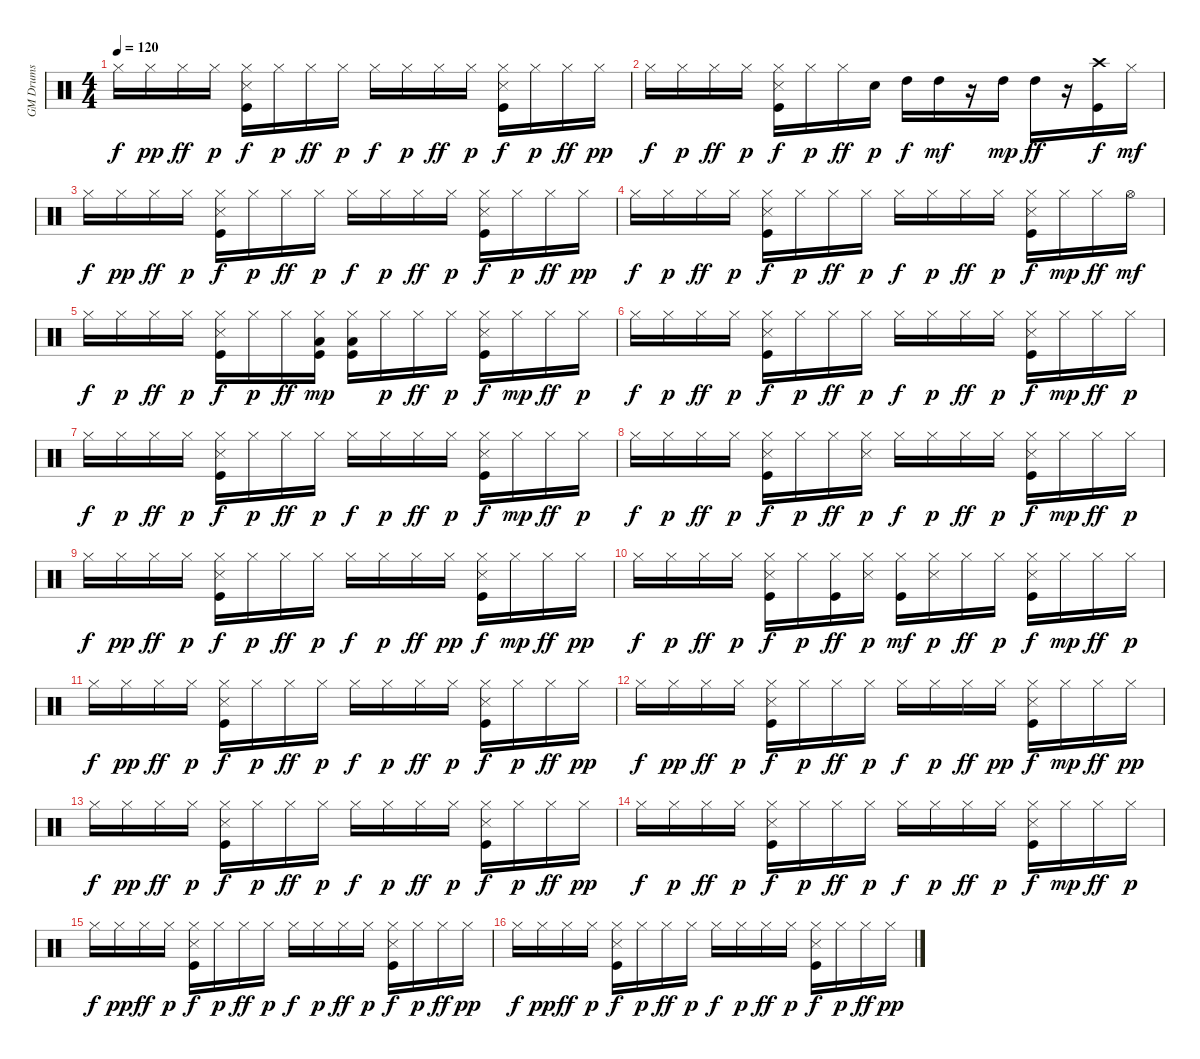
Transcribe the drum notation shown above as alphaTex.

\track ("GM Drums" "GM Drums") {instrument percussion}
\staff {score}
\articulation defaults
\ts (4 4)
\tempo 120
\clef neutral
\ks c "Hi-Hat (closed)".16{dy f} "Hi-Hat (closed)".16{dy pp} "Hi-Hat (closed)".16{dy ff} "Hi-Hat (closed)".16{dy p}
("Kick (hit)" "Snare (side stick) 3" "Hi-Hat (closed)").16{dy f} "Hi-Hat (closed)".16{dy p} "Hi-Hat (closed)".16{dy ff} "Hi-Hat (closed)".16{dy p} "Hi-Hat (closed)".16{dy f} "Hi-Hat (closed)".16{dy p} "Hi-Hat (closed)".16{dy ff} "Hi-Hat (closed)".16{dy p} ("Kick (hit)" "Snare (side stick) 3" "Hi-Hat (closed)").16{dy f} "Hi-Hat (closed)".16{dy p} "Hi-Hat (closed)".16{dy ff} "Hi-Hat (closed)".16{dy pp} |
"Hi-Hat (closed)".16{dy f} "Hi-Hat (closed)".16{dy p} "Hi-Hat (closed)".16{dy ff} "Hi-Hat (closed)".16{dy p} ("Kick (hit)" "Snare (side stick) 3" "Hi-Hat (closed)").16{dy f} "Hi-Hat (closed)".16{dy p} "Hi-Hat (closed)".16{dy ff} "Snare (hit) 2".16{dy p} "High Tom (hit)".16{dy f} "High Tom (hit)".16{dy mf} r.16 "High Tom (hit)".16{dy mp} "High Tom (hit)".16{dy ff} r.16 ("Kick (hit)" "Crash high (hit)").16{dy f} "Hi-Hat (closed)".16{dy mf} |
"Hi-Hat (closed)".16{dy f} "Hi-Hat (closed)".16{dy pp} "Hi-Hat (closed)".16{dy ff} "Hi-Hat (closed)".16{dy p} ("Kick (hit)" "Snare (side stick) 3" "Hi-Hat (closed)").16{dy f} "Hi-Hat (closed)".16{dy p} "Hi-Hat (closed)".16{dy ff} "Hi-Hat (closed)".16{dy p} "Hi-Hat (closed)".16{dy f} "Hi-Hat (closed)".16{dy p} "Hi-Hat (closed)".16{dy ff} "Hi-Hat (closed)".16{dy p} ("Kick (hit)" "Snare (side stick) 3" "Hi-Hat (closed)").16{dy f} "Hi-Hat (closed)".16{dy p} "Hi-Hat (closed)".16{dy ff} "Hi-Hat (closed)".16{dy pp} |
"Hi-Hat (closed)".16{dy f} "Hi-Hat (closed)".16{dy p} "Hi-Hat (closed)".16{dy ff} "Hi-Hat (closed)".16{dy p} ("Kick (hit)" "Snare (side stick) 3" "Hi-Hat (closed)").16{dy f} "Hi-Hat (closed)".16{dy p} "Hi-Hat (closed)".16{dy ff} "Hi-Hat (closed)".16{dy p} "Hi-Hat (closed)".16{dy f} "Hi-Hat (closed)".16{dy p} "Hi-Hat (closed)".16{dy ff} "Hi-Hat (closed)".16{dy p} ("Kick (hit)" "Snare (side stick) 3" "Hi-Hat (closed)").16{dy f} "Hi-Hat (closed)".16{dy mp} "Hi-Hat (closed)".16{dy ff} "Hi-Hat (open)".16{dy mf} |
"Hi-Hat (closed)".16{dy f} "Hi-Hat (closed)".16{dy p} "Hi-Hat (closed)".16{dy ff} "Hi-Hat (closed)".16{dy p} ("Kick (hit)" "Snare (side stick) 3" "Hi-Hat (closed)").16{dy f} "Hi-Hat (closed)".16{dy p} "Hi-Hat (closed)".16{dy ff} ("Kick (hit)" "Hi-Hat (closed)" "Low Tom (hit)").16{dy mp} ("Kick (hit)" "Hi-Hat (closed)" "Low Tom (hit)").16 "Hi-Hat (closed)".16{dy p} "Hi-Hat (closed)".16{dy ff} "Hi-Hat (closed)".16{dy p} ("Kick (hit)" "Snare (side stick) 3" "Hi-Hat (closed)").16{dy f} "Hi-Hat (closed)".16{dy mp} "Hi-Hat (closed)".16{dy ff} "Hi-Hat (closed)".16{dy p} |
"Hi-Hat (closed)".16{dy f} "Hi-Hat (closed)".16{dy p} "Hi-Hat (closed)".16{dy ff} "Hi-Hat (closed)".16{dy p} ("Kick (hit)" "Snare (side stick) 3" "Hi-Hat (closed)").16{dy f} "Hi-Hat (closed)".16{dy p} "Hi-Hat (closed)".16{dy ff} "Hi-Hat (closed)".16{dy p} "Hi-Hat (closed)".16{dy f} "Hi-Hat (closed)".16{dy p} "Hi-Hat (closed)".16{dy ff} "Hi-Hat (closed)".16{dy p} ("Kick (hit)" "Snare (side stick) 3" "Hi-Hat (closed)").16{dy f} "Hi-Hat (closed)".16{dy mp} "Hi-Hat (closed)".16{dy ff} "Hi-Hat (closed)".16{dy p} |
"Hi-Hat (closed)".16{dy f} "Hi-Hat (closed)".16{dy p} "Hi-Hat (closed)".16{dy ff} "Hi-Hat (closed)".16{dy p} ("Kick (hit)" "Snare (side stick) 3" "Hi-Hat (closed)").16{dy f} "Hi-Hat (closed)".16{dy p} "Hi-Hat (closed)".16{dy ff} "Hi-Hat (closed)".16{dy p} "Hi-Hat (closed)".16{dy f} "Hi-Hat (closed)".16{dy p} "Hi-Hat (closed)".16{dy ff} "Hi-Hat (closed)".16{dy p} ("Kick (hit)" "Snare (side stick) 3" "Hi-Hat (closed)").16{dy f} "Hi-Hat (closed)".16{dy mp} "Hi-Hat (closed)".16{dy ff} "Hi-Hat (closed)".16{dy p} |
"Hi-Hat (closed)".16{dy f} "Hi-Hat (closed)".16{dy p} "Hi-Hat (closed)".16{dy ff} "Hi-Hat (closed)".16{dy p} ("Kick (hit)" "Snare (side stick) 3" "Hi-Hat (closed)").16{dy f} "Hi-Hat (closed)".16{dy p} "Hi-Hat (closed)".16{dy ff} ("Snare (side stick) 3" "Hi-Hat (closed)").16{dy p} "Hi-Hat (closed)".16{dy f} "Hi-Hat (closed)".16{dy p} "Hi-Hat (closed)".16{dy ff} "Hi-Hat (closed)".16{dy p} ("Kick (hit)" "Snare (side stick) 3" "Hi-Hat (closed)").16{dy f} "Hi-Hat (closed)".16{dy mp} "Hi-Hat (closed)".16{dy ff} "Hi-Hat (closed)".16{dy p} |
"Hi-Hat (closed)".16{dy f} "Hi-Hat (closed)".16{dy pp} "Hi-Hat (closed)".16{dy ff} "Hi-Hat (closed)".16{dy p} ("Kick (hit)" "Snare (side stick) 3" "Hi-Hat (closed)").16{dy f} "Hi-Hat (closed)".16{dy p} "Hi-Hat (closed)".16{dy ff} "Hi-Hat (closed)".16{dy p} "Hi-Hat (closed)".16{dy f} "Hi-Hat (closed)".16{dy p} "Hi-Hat (closed)".16{dy ff} "Hi-Hat (closed)".16{dy pp} ("Kick (hit)" "Snare (side stick) 3" "Hi-Hat (closed)").16{dy f} "Hi-Hat (closed)".16{dy mp} "Hi-Hat (closed)".16{dy ff} "Hi-Hat (closed)".16{dy pp} |
"Hi-Hat (closed)".16{dy f} "Hi-Hat (closed)".16{dy p} "Hi-Hat (closed)".16{dy ff} "Hi-Hat (closed)".16{dy p} ("Kick (hit)" "Snare (side stick) 3" "Hi-Hat (closed)").16{dy f} "Hi-Hat (closed)".16{dy p} ("Kick (hit)" "Hi-Hat (closed)").16{dy ff} ("Snare (side stick) 3" "Hi-Hat (closed)").16{dy p} ("Kick (hit)" "Hi-Hat (closed)").16{dy mf} ("Snare (side stick) 3" "Hi-Hat (closed)").16{dy p} "Hi-Hat (closed)".16{dy ff} "Hi-Hat (closed)".16{dy p} ("Kick (hit)" "Snare (side stick) 3" "Hi-Hat (closed)").16{dy f} "Hi-Hat (closed)".16{dy mp} "Hi-Hat (closed)".16{dy ff} "Hi-Hat (closed)".16{dy p} |
"Hi-Hat (closed)".16{dy f} "Hi-Hat (closed)".16{dy pp} "Hi-Hat (closed)".16{dy ff} "Hi-Hat (closed)".16{dy p} ("Kick (hit)" "Snare (side stick) 3" "Hi-Hat (closed)").16{dy f} "Hi-Hat (closed)".16{dy p} "Hi-Hat (closed)".16{dy ff} "Hi-Hat (closed)".16{dy p} "Hi-Hat (closed)".16{dy f} "Hi-Hat (closed)".16{dy p} "Hi-Hat (closed)".16{dy ff} "Hi-Hat (closed)".16{dy p} ("Kick (hit)" "Snare (side stick) 3" "Hi-Hat (closed)").16{dy f} "Hi-Hat (closed)".16{dy p} "Hi-Hat (closed)".16{dy ff} "Hi-Hat (closed)".16{dy pp} |
"Hi-Hat (closed)".16{dy f} "Hi-Hat (closed)".16{dy pp} "Hi-Hat (closed)".16{dy ff} "Hi-Hat (closed)".16{dy p} ("Kick (hit)" "Snare (side stick) 3" "Hi-Hat (closed)").16{dy f} "Hi-Hat (closed)".16{dy p} "Hi-Hat (closed)".16{dy ff} "Hi-Hat (closed)".16{dy p} "Hi-Hat (closed)".16{dy f} "Hi-Hat (closed)".16{dy p} "Hi-Hat (closed)".16{dy ff} "Hi-Hat (closed)".16{dy pp} ("Kick (hit)" "Snare (side stick) 3" "Hi-Hat (closed)").16{dy f} "Hi-Hat (closed)".16{dy mp} "Hi-Hat (closed)".16{dy ff} "Hi-Hat (closed)".16{dy pp} |
"Hi-Hat (closed)".16{dy f} "Hi-Hat (closed)".16{dy pp} "Hi-Hat (closed)".16{dy ff} "Hi-Hat (closed)".16{dy p} ("Kick (hit)" "Snare (side stick) 3" "Hi-Hat (closed)").16{dy f} "Hi-Hat (closed)".16{dy p} "Hi-Hat (closed)".16{dy ff} "Hi-Hat (closed)".16{dy p} "Hi-Hat (closed)".16{dy f} "Hi-Hat (closed)".16{dy p} "Hi-Hat (closed)".16{dy ff} "Hi-Hat (closed)".16{dy p} ("Kick (hit)" "Snare (side stick) 3" "Hi-Hat (closed)").16{dy f} "Hi-Hat (closed)".16{dy p} "Hi-Hat (closed)".16{dy ff} "Hi-Hat (closed)".16{dy pp} |
"Hi-Hat (closed)".16{dy f} "Hi-Hat (closed)".16{dy p} "Hi-Hat (closed)".16{dy ff} "Hi-Hat (closed)".16{dy p} ("Kick (hit)" "Snare (side stick) 3" "Hi-Hat (closed)").16{dy f} "Hi-Hat (closed)".16{dy p} "Hi-Hat (closed)".16{dy ff} "Hi-Hat (closed)".16{dy p} "Hi-Hat (closed)".16{dy f} "Hi-Hat (closed)".16{dy p} "Hi-Hat (closed)".16{dy ff} "Hi-Hat (closed)".16{dy p} ("Kick (hit)" "Snare (side stick) 3" "Hi-Hat (closed)").16{dy f} "Hi-Hat (closed)".16{dy mp} "Hi-Hat (closed)".16{dy ff} "Hi-Hat (closed)".16{dy p} |
"Hi-Hat (closed)".16{dy f} "Hi-Hat (closed)".16{dy pp} "Hi-Hat (closed)".16{dy ff} "Hi-Hat (closed)".16{dy p} ("Kick (hit)" "Snare (side stick) 3" "Hi-Hat (closed)").16{dy f} "Hi-Hat (closed)".16{dy p} "Hi-Hat (closed)".16{dy ff} "Hi-Hat (closed)".16{dy p} "Hi-Hat (closed)".16{dy f} "Hi-Hat (closed)".16{dy p} "Hi-Hat (closed)".16{dy ff} "Hi-Hat (closed)".16{dy p} ("Kick (hit)" "Snare (side stick) 3" "Hi-Hat (closed)").16{dy f} "Hi-Hat (closed)".16{dy p} "Hi-Hat (closed)".16{dy ff} "Hi-Hat (closed)".16{dy pp} |
"Hi-Hat (closed)".16{dy f} "Hi-Hat (closed)".16{dy pp} "Hi-Hat (closed)".16{dy ff} "Hi-Hat (closed)".16{dy p} ("Kick (hit)" "Snare (side stick) 3" "Hi-Hat (closed)").16{dy f} "Hi-Hat (closed)".16{dy p} "Hi-Hat (closed)".16{dy ff} "Hi-Hat (closed)".16{dy p} "Hi-Hat (closed)".16{dy f} "Hi-Hat (closed)".16{dy p} "Hi-Hat (closed)".16{dy ff} "Hi-Hat (closed)".16{dy p} ("Kick (hit)" "Snare (side stick) 3" "Hi-Hat (closed)").16{dy f} "Hi-Hat (closed)".16{dy p} "Hi-Hat (closed)".16{dy ff} "Hi-Hat (closed)".16{dy pp}
